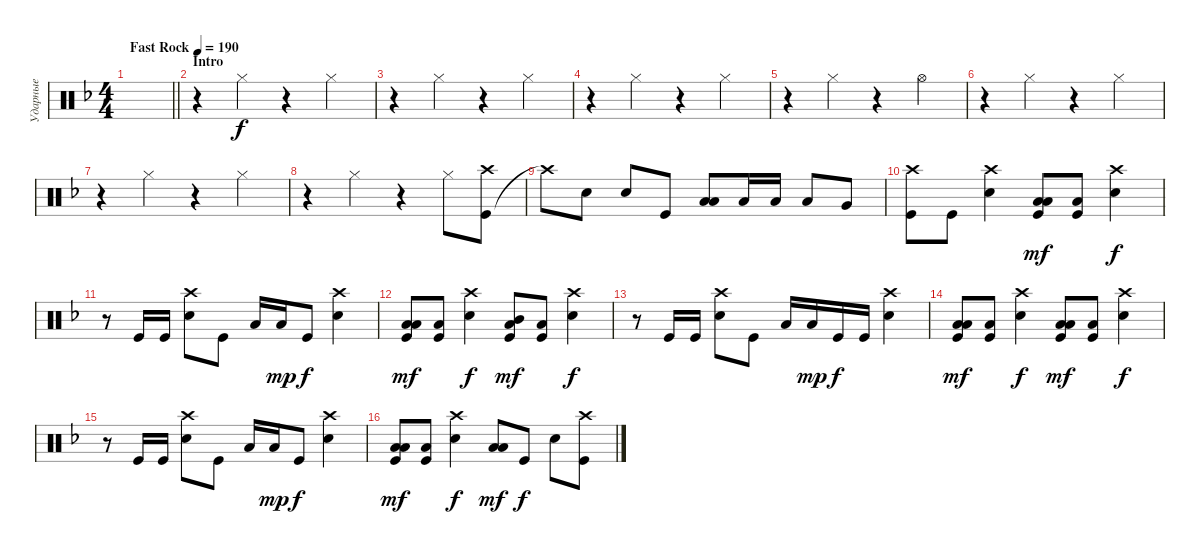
\track ("Ударные" "Ударные") {instrument percussion}
\staff {score}
\articulation defaults
\ts (4 4)
\tempo (190 "Fast Rock")
\clef neutral
\barLineRight lightlight
\ks dminor
|
\section ("" "Intro")
r.4 "Hi-Hat (closed)".4 r.4 "Hi-Hat (closed)".4 |
r.4 "Hi-Hat (closed)".4 r.4 "Hi-Hat (closed)".4 |
r.4 "Hi-Hat (closed)".4 r.4 "Hi-Hat (closed)".4 |
r.4 "Hi-Hat (closed)".4 r.4 "Hi-Hat (open)".4 |
r.4 "Hi-Hat (closed)".4 r.4 "Hi-Hat (closed)".4 |
r.4 "Hi-Hat (closed)".4 r.4 "Hi-Hat (closed)".4 |
r.4 "Hi-Hat (closed)".4 r.4 "Hi-Hat (closed)".8 ("Kick (hit)" "Crash high (hit)").8 |
"Crash high (hit)"{t}.8 "Snare (hit) 2".8 "Snare (hit) 2".8 "Kick (hit)".8 ("Low Tom (hit)" "Low Tom (hit)").8{bd 240} "Low Tom (hit)".16 "Low Tom (hit)".16 "Low Tom (hit)".8 "Very Low Tom (hit)".8 |
("Kick (hit)" "Crash high (hit)").8 "Kick (hit)".8 ("Snare (hit) 2" "Crash high (hit)").4 ("Low Tom (hit)" "Low Tom (hit)" "Kick (hit)").8{bd 240 dy mf} ("Kick (hit)" "Low Tom (hit)").8 ("Snare (hit) 2" "Crash high (hit)").4{dy f} |
r.8 "Kick (hit)".16 "Kick (hit)".16 ("Snare (hit) 2" "Crash high (hit)").8 "Kick (hit)".8 "Low Tom (hit)".16{bd 240} "Low Tom (hit)".16{dy mp} "Kick (hit)".8{dy f} ("Snare (hit) 2" "Crash high (hit)").4 |
("Low Tom (hit)" "Kick (hit)" "Low Tom (hit)").8{bd 60 dy mf} ("Kick (hit)" "Low Tom (hit)").8 ("Snare (hit) 2" "Crash high (hit)").4{dy f} ("Low Tom (hit)" "Kick (hit)" "Mid Tom (hit)").8{bd 60 dy mf} ("Kick (hit)" "Low Tom (hit)").8 ("Snare (hit) 2" "Crash high (hit)").4{dy f} |
r.8 "Kick (hit)".16 "Kick (hit)".16 ("Snare (hit) 2" "Crash high (hit)").8 "Kick (hit)".8 "Low Tom (hit)".16{bd 240} "Low Tom (hit)".16{dy mp} "Kick (hit)".16{dy f} "Kick (hit)".16 ("Snare (hit) 2" "Crash high (hit)").4 |
("Low Tom (hit)" "Kick (hit)" "Low Tom (hit)").8{bd 60 dy mf} ("Kick (hit)" "Low Tom (hit)").8 ("Snare (hit) 2" "Crash high (hit)").4{dy f} ("Low Tom (hit)" "Kick (hit)" "Low Tom (hit)").8{bd 60 dy mf} ("Kick (hit)" "Low Tom (hit)").8 ("Snare (hit) 2" "Crash high (hit)").4{dy f} |
r.8 "Kick (hit)".16 "Kick (hit)".16 ("Snare (hit) 2" "Crash high (hit)").8 "Kick (hit)".8 "Low Tom (hit)".16{bd 240} "Low Tom (hit)".16{dy mp} "Kick (hit)".8{dy f} ("Snare (hit) 2" "Crash high (hit)").4 |
("Low Tom (hit)" "Kick (hit)" "Low Tom (hit)").8{bd 60 dy mf} ("Kick (hit)" "Low Tom (hit)").8 ("Snare (hit) 2" "Crash high (hit)").4{dy f} ("Low Tom (hit)" "Low Tom (hit)").8{bd 240 dy mf} "Kick (hit)".8{dy f} "Snare (hit) 2".8 ("Kick (hit)" "Crash high (hit)").8
